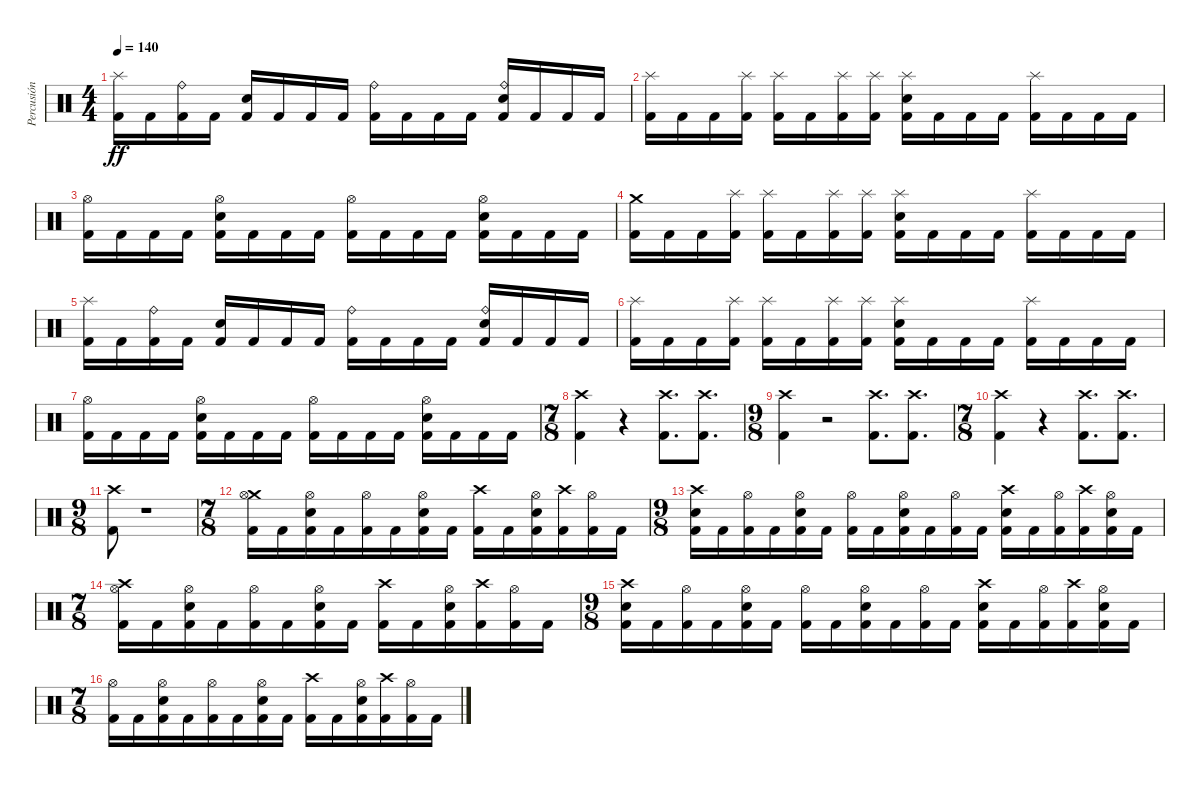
\track ("Percusión" "Percusión") {instrument percussion}
\staff {score}
\articulation defaults
\ts (4 4)
\tempo 140
\clef neutral
\ks c
("Splash (hit)" "Kick (hit) 2").16{dy ff} "Kick (hit) 2".16 ("Ride (bell)" "Kick (hit) 2").16 "Kick (hit) 2".16 ("Electric Snare (hit)" "Kick (hit) 2").16 "Kick (hit) 2".16 "Kick (hit) 2".16 "Kick (hit) 2".16 ("Ride (bell)" "Kick (hit) 2").16 "Kick (hit) 2".16 "Kick (hit) 2".16 "Kick (hit) 2".16 ("Ride (bell)" "Electric Snare (hit)" "Kick (hit) 2").16 "Kick (hit) 2".16 "Kick (hit) 2".16 "Kick (hit) 2".16 |
("Splash (hit)" "Kick (hit) 2").16 "Kick (hit) 2".16 "Kick (hit) 2".16 ("Splash (hit)" "Kick (hit) 2").16 ("Splash (hit)" "Kick (hit) 2").16 "Kick (hit) 2".16 ("Splash (hit)" "Kick (hit) 2").16 ("Splash (hit)" "Kick (hit) 2").16 ("Splash (hit)" "Electric Snare (hit)" "Kick (hit) 2").16 "Kick (hit) 2".16 "Kick (hit) 2".16 "Kick (hit) 2".16 ("Splash (hit)" "Kick (hit) 2").16 "Kick (hit) 2".16 "Kick (hit) 2".16 "Kick (hit) 2".16 |
("Hi-Hat (open)" "Kick (hit) 2").16 "Kick (hit) 2".16 "Kick (hit) 2".16 "Kick (hit) 2".16 ("Hi-Hat (open)" "Electric Snare (hit)" "Kick (hit) 2").16 "Kick (hit) 2".16 "Kick (hit) 2".16 "Kick (hit) 2".16 ("Hi-Hat (open)" "Kick (hit) 2").16 "Kick (hit) 2".16 "Kick (hit) 2".16 "Kick (hit) 2".16 ("Hi-Hat (open)" "Electric Snare (hit)" "Kick (hit) 2").16 "Kick (hit) 2".16 "Kick (hit) 2".16 "Kick (hit) 2".16 |
("Crash medium (hit)" "Kick (hit) 2").16 "Kick (hit) 2".16 "Kick (hit) 2".16 ("Splash (hit)" "Kick (hit) 2").16 ("Splash (hit)" "Kick (hit) 2").16 "Kick (hit) 2".16 ("Splash (hit)" "Kick (hit) 2").16 ("Splash (hit)" "Kick (hit) 2").16 ("Splash (hit)" "Electric Snare (hit)" "Kick (hit) 2").16 "Kick (hit) 2".16 "Kick (hit) 2".16 "Kick (hit) 2".16 ("Splash (hit)" "Kick (hit) 2").16 "Kick (hit) 2".16 "Kick (hit) 2".16 "Kick (hit) 2".16 |
("Splash (hit)" "Kick (hit) 2").16 "Kick (hit) 2".16 ("Ride (bell)" "Kick (hit) 2").16 "Kick (hit) 2".16 ("Electric Snare (hit)" "Kick (hit) 2").16 "Kick (hit) 2".16 "Kick (hit) 2".16 "Kick (hit) 2".16 ("Ride (bell)" "Kick (hit) 2").16 "Kick (hit) 2".16 "Kick (hit) 2".16 "Kick (hit) 2".16 ("Ride (bell)" "Electric Snare (hit)" "Kick (hit) 2").16 "Kick (hit) 2".16 "Kick (hit) 2".16 "Kick (hit) 2".16 |
("Splash (hit)" "Kick (hit) 2").16 "Kick (hit) 2".16 "Kick (hit) 2".16 ("Splash (hit)" "Kick (hit) 2").16 ("Splash (hit)" "Kick (hit) 2").16 "Kick (hit) 2".16 ("Splash (hit)" "Kick (hit) 2").16 ("Splash (hit)" "Kick (hit) 2").16 ("Splash (hit)" "Electric Snare (hit)" "Kick (hit) 2").16 "Kick (hit) 2".16 "Kick (hit) 2".16 "Kick (hit) 2".16 ("Splash (hit)" "Kick (hit) 2").16 "Kick (hit) 2".16 "Kick (hit) 2".16 "Kick (hit) 2".16 |
("Hi-Hat (open)" "Kick (hit) 2").16 "Kick (hit) 2".16 "Kick (hit) 2".16 "Kick (hit) 2".16 ("Hi-Hat (open)" "Electric Snare (hit)" "Kick (hit) 2").16 "Kick (hit) 2".16 "Kick (hit) 2".16 "Kick (hit) 2".16 ("Hi-Hat (open)" "Kick (hit) 2").16 "Kick (hit) 2".16 "Kick (hit) 2".16 "Kick (hit) 2".16 ("Hi-Hat (open)" "Electric Snare (hit)" "Kick (hit) 2").16 "Kick (hit) 2".16 "Kick (hit) 2".16 "Kick (hit) 2".16 |
\ts (7 8)
("Crash high (hit)" "Kick (hit) 2").4 r.4 ("Crash high (hit)" "Kick (hit) 2").8{d} ("Crash high (hit)" "Kick (hit) 2").8{d} |
\ts (9 8)
("Crash high (hit)" "Kick (hit) 2").4 r.2 ("Crash high (hit)" "Kick (hit) 2").8{d} ("Crash high (hit)" "Kick (hit) 2").8{d} |
\ts (7 8)
("Crash high (hit)" "Kick (hit) 2").4 r.4 ("Crash high (hit)" "Kick (hit) 2").8{d} ("Crash high (hit)" "Kick (hit) 2").8{d} |
\ts (9 8)
("Crash high (hit)" "Kick (hit) 2").8 r.1 |
\ts (7 8)
("Crash medium (hit)" "Hi-Hat (open)" "Kick (hit) 2").16 "Kick (hit) 2".16 ("Hi-Hat (open)" "Electric Snare (hit)" "Kick (hit) 2").16 "Kick (hit) 2".16 ("Hi-Hat (open)" "Kick (hit) 2").16 "Kick (hit) 2".16 ("Hi-Hat (open)" "Electric Snare (hit)" "Kick (hit) 2").16 "Kick (hit) 2".16 ("Crash high (hit)" "Kick (hit) 2").16 "Kick (hit) 2".16 ("Hi-Hat (open)" "Electric Snare (hit)" "Kick (hit) 2").16 ("Crash high (hit)" "Kick (hit) 2").16 ("Hi-Hat (open)" "Kick (hit) 2").16 "Kick (hit) 2".16 |
\ts (9 8)
("Crash high (hit)" "Electric Snare (hit)" "Kick (hit) 2").16 "Kick (hit) 2".16 ("Hi-Hat (open)" "Kick (hit) 2").16 "Kick (hit) 2".16 ("Hi-Hat (open)" "Electric Snare (hit)" "Kick (hit) 2").16 "Kick (hit) 2".16 ("Hi-Hat (open)" "Kick (hit) 2").16 "Kick (hit) 2".16 ("Hi-Hat (open)" "Electric Snare (hit)" "Kick (hit) 2").16 "Kick (hit) 2".16 ("Hi-Hat (open)" "Kick (hit) 2").16 "Kick (hit) 2".16 ("Crash high (hit)" "Electric Snare (hit)" "Kick (hit) 2").16 "Kick (hit) 2".16 ("Hi-Hat (open)" "Kick (hit) 2").16 ("Crash high (hit)" "Kick (hit) 2").16 ("Hi-Hat (open)" "Electric Snare (hit)" "Kick (hit) 2").16 "Kick (hit) 2".16 |
\ts (7 8)
("Crash high (hit)" "Hi-Hat (open)" "Kick (hit) 2").16 "Kick (hit) 2".16 ("Hi-Hat (open)" "Electric Snare (hit)" "Kick (hit) 2").16 "Kick (hit) 2".16 ("Hi-Hat (open)" "Kick (hit) 2").16 "Kick (hit) 2".16 ("Hi-Hat (open)" "Electric Snare (hit)" "Kick (hit) 2").16 "Kick (hit) 2".16 ("Crash high (hit)" "Kick (hit) 2").16 "Kick (hit) 2".16 ("Hi-Hat (open)" "Electric Snare (hit)" "Kick (hit) 2").16 ("Crash high (hit)" "Kick (hit) 2").16 ("Hi-Hat (open)" "Kick (hit) 2").16 "Kick (hit) 2".16 |
\ts (9 8)
("Crash high (hit)" "Electric Snare (hit)" "Kick (hit) 2").16 "Kick (hit) 2".16 ("Hi-Hat (open)" "Kick (hit) 2").16 "Kick (hit) 2".16 ("Hi-Hat (open)" "Electric Snare (hit)" "Kick (hit) 2").16 "Kick (hit) 2".16 ("Hi-Hat (open)" "Kick (hit) 2").16 "Kick (hit) 2".16 ("Hi-Hat (open)" "Electric Snare (hit)" "Kick (hit) 2").16 "Kick (hit) 2".16 ("Hi-Hat (open)" "Kick (hit) 2").16 "Kick (hit) 2".16 ("Crash high (hit)" "Electric Snare (hit)" "Kick (hit) 2").16 "Kick (hit) 2".16 ("Hi-Hat (open)" "Kick (hit) 2").16 ("Crash high (hit)" "Kick (hit) 2").16 ("Hi-Hat (open)" "Electric Snare (hit)" "Kick (hit) 2").16 "Kick (hit) 2".16 |
\ts (7 8)
("Hi-Hat (open)" "Kick (hit) 2").16 "Kick (hit) 2".16 ("Hi-Hat (open)" "Electric Snare (hit)" "Kick (hit) 2").16 "Kick (hit) 2".16 ("Hi-Hat (open)" "Kick (hit) 2").16 "Kick (hit) 2".16 ("Hi-Hat (open)" "Electric Snare (hit)" "Kick (hit) 2").16 "Kick (hit) 2".16 ("Crash high (hit)" "Kick (hit) 2").16 "Kick (hit) 2".16 ("Hi-Hat (open)" "Electric Snare (hit)" "Kick (hit) 2").16 ("Crash high (hit)" "Kick (hit) 2").16 ("Hi-Hat (open)" "Kick (hit) 2").16 "Kick (hit) 2".16
